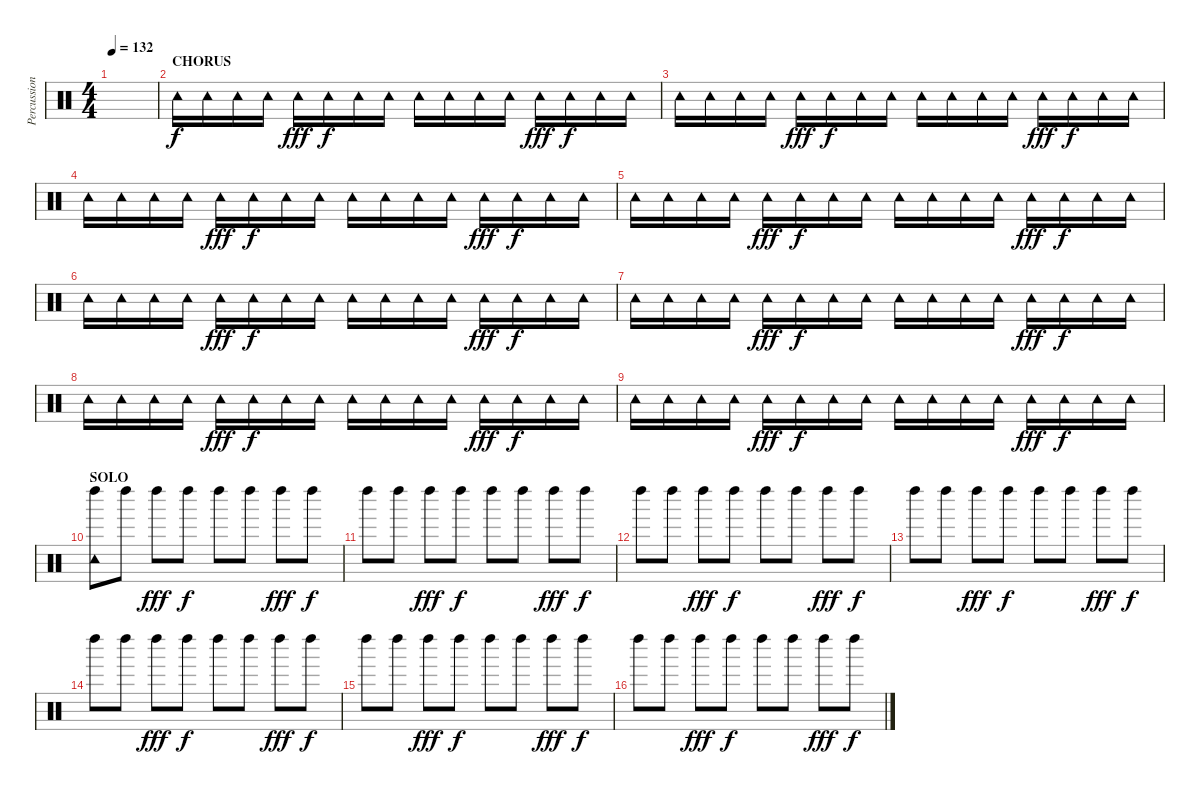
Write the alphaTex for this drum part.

\track ("Percussion" "Percussion") {instrument percussion}
\staff {score}
\articulation defaults
\ts (4 4)
\tempo 132
\clef neutral
\ks c
|
\section ("" "CHORUS")
"Tambourine (hit)".16{dy f} "Tambourine (hit)".16 "Tambourine (hit)".16 "Tambourine (hit)".16 "Tambourine (hit)".16{dy fff} "Tambourine (hit)".16{dy f} "Tambourine (hit)".16 "Tambourine (hit)".16 "Tambourine (hit)".16 "Tambourine (hit)".16 "Tambourine (hit)".16 "Tambourine (hit)".16 "Tambourine (hit)".16{dy fff} "Tambourine (hit)".16{dy f} "Tambourine (hit)".16 "Tambourine (hit)".16 |
"Tambourine (hit)".16 "Tambourine (hit)".16 "Tambourine (hit)".16 "Tambourine (hit)".16 "Tambourine (hit)".16{dy fff} "Tambourine (hit)".16{dy f} "Tambourine (hit)".16 "Tambourine (hit)".16 "Tambourine (hit)".16 "Tambourine (hit)".16 "Tambourine (hit)".16 "Tambourine (hit)".16 "Tambourine (hit)".16{dy fff} "Tambourine (hit)".16{dy f} "Tambourine (hit)".16 "Tambourine (hit)".16 |
"Tambourine (hit)".16 "Tambourine (hit)".16 "Tambourine (hit)".16 "Tambourine (hit)".16 "Tambourine (hit)".16{dy fff} "Tambourine (hit)".16{dy f} "Tambourine (hit)".16 "Tambourine (hit)".16 "Tambourine (hit)".16 "Tambourine (hit)".16 "Tambourine (hit)".16 "Tambourine (hit)".16 "Tambourine (hit)".16{dy fff} "Tambourine (hit)".16{dy f} "Tambourine (hit)".16 "Tambourine (hit)".16 |
"Tambourine (hit)".16 "Tambourine (hit)".16 "Tambourine (hit)".16 "Tambourine (hit)".16 "Tambourine (hit)".16{dy fff} "Tambourine (hit)".16{dy f} "Tambourine (hit)".16 "Tambourine (hit)".16 "Tambourine (hit)".16 "Tambourine (hit)".16 "Tambourine (hit)".16 "Tambourine (hit)".16 "Tambourine (hit)".16{dy fff} "Tambourine (hit)".16{dy f} "Tambourine (hit)".16 "Tambourine (hit)".16 |
"Tambourine (hit)".16 "Tambourine (hit)".16 "Tambourine (hit)".16 "Tambourine (hit)".16 "Tambourine (hit)".16{dy fff} "Tambourine (hit)".16{dy f} "Tambourine (hit)".16 "Tambourine (hit)".16 "Tambourine (hit)".16 "Tambourine (hit)".16 "Tambourine (hit)".16 "Tambourine (hit)".16 "Tambourine (hit)".16{dy fff} "Tambourine (hit)".16{dy f} "Tambourine (hit)".16 "Tambourine (hit)".16 |
"Tambourine (hit)".16 "Tambourine (hit)".16 "Tambourine (hit)".16 "Tambourine (hit)".16 "Tambourine (hit)".16{dy fff} "Tambourine (hit)".16{dy f} "Tambourine (hit)".16 "Tambourine (hit)".16 "Tambourine (hit)".16 "Tambourine (hit)".16 "Tambourine (hit)".16 "Tambourine (hit)".16 "Tambourine (hit)".16{dy fff} "Tambourine (hit)".16{dy f} "Tambourine (hit)".16 "Tambourine (hit)".16 |
"Tambourine (hit)".16 "Tambourine (hit)".16 "Tambourine (hit)".16 "Tambourine (hit)".16 "Tambourine (hit)".16{dy fff} "Tambourine (hit)".16{dy f} "Tambourine (hit)".16 "Tambourine (hit)".16 "Tambourine (hit)".16 "Tambourine (hit)".16 "Tambourine (hit)".16 "Tambourine (hit)".16 "Tambourine (hit)".16{dy fff} "Tambourine (hit)".16{dy f} "Tambourine (hit)".16 "Tambourine (hit)".16 |
"Tambourine (hit)".16 "Tambourine (hit)".16 "Tambourine (hit)".16 "Tambourine (hit)".16 "Tambourine (hit)".16{dy fff} "Tambourine (hit)".16{dy f} "Tambourine (hit)".16 "Tambourine (hit)".16 "Tambourine (hit)".16 "Tambourine (hit)".16 "Tambourine (hit)".16 "Tambourine (hit)".16 "Tambourine (hit)".16{dy fff} "Tambourine (hit)".16{dy f} "Tambourine (hit)".16 "Tambourine (hit)".16 |
\section ("" "SOLO ")
("Left Maraca (hit)" "Tambourine (hit)").8 "Left Maraca (hit)".8 "Left Maraca (hit)".8{dy fff} "Left Maraca (hit)".8{dy f} "Left Maraca (hit)".8 "Left Maraca (hit)".8 "Left Maraca (hit)".8{dy fff} "Left Maraca (hit)".8{dy f} |
"Left Maraca (hit)".8 "Left Maraca (hit)".8 "Left Maraca (hit)".8{dy fff} "Left Maraca (hit)".8{dy f} "Left Maraca (hit)".8 "Left Maraca (hit)".8 "Left Maraca (hit)".8{dy fff} "Left Maraca (hit)".8{dy f} |
"Left Maraca (hit)".8 "Left Maraca (hit)".8 "Left Maraca (hit)".8{dy fff} "Left Maraca (hit)".8{dy f} "Left Maraca (hit)".8 "Left Maraca (hit)".8 "Left Maraca (hit)".8{dy fff} "Left Maraca (hit)".8{dy f} |
"Left Maraca (hit)".8 "Left Maraca (hit)".8 "Left Maraca (hit)".8{dy fff} "Left Maraca (hit)".8{dy f} "Left Maraca (hit)".8 "Left Maraca (hit)".8 "Left Maraca (hit)".8{dy fff} "Left Maraca (hit)".8{dy f} |
"Left Maraca (hit)".8 "Left Maraca (hit)".8 "Left Maraca (hit)".8{dy fff} "Left Maraca (hit)".8{dy f} "Left Maraca (hit)".8 "Left Maraca (hit)".8 "Left Maraca (hit)".8{dy fff} "Left Maraca (hit)".8{dy f} |
"Left Maraca (hit)".8 "Left Maraca (hit)".8 "Left Maraca (hit)".8{dy fff} "Left Maraca (hit)".8{dy f} "Left Maraca (hit)".8 "Left Maraca (hit)".8 "Left Maraca (hit)".8{dy fff} "Left Maraca (hit)".8{dy f} |
"Left Maraca (hit)".8 "Left Maraca (hit)".8 "Left Maraca (hit)".8{dy fff} "Left Maraca (hit)".8{dy f} "Left Maraca (hit)".8 "Left Maraca (hit)".8 "Left Maraca (hit)".8{dy fff} "Left Maraca (hit)".8{dy f}
